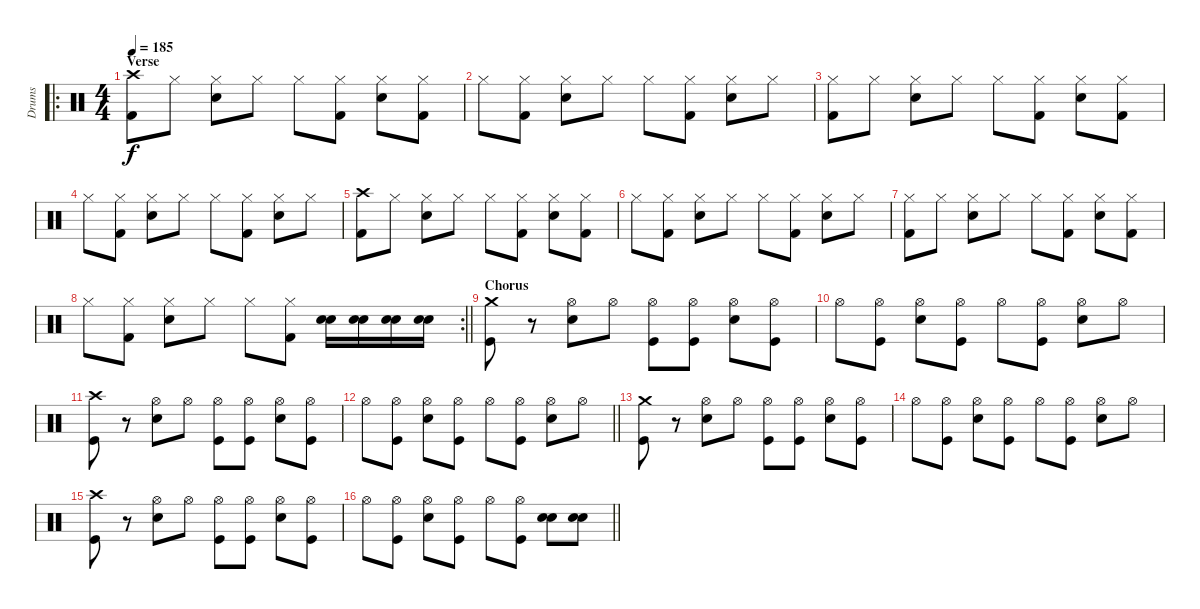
\track ("Drums" "Drums") {instrument percussion}
\staff {score}
\articulation defaults
\ro
\ts (4 4)
\section ("" "Verse")
\tempo 185
\clef neutral
\ks c
("Crash high (hit)" "Kick (hit) 2").8{dy f} "Hi-Hat (closed)".8 ("Hi-Hat (closed)" "Electric Snare (hit)").8 "Hi-Hat (closed)".8 "Hi-Hat (closed)".8 ("Kick (hit) 2" "Hi-Hat (closed)").8 ("Hi-Hat (closed)" "Electric Snare (hit)").8 ("Kick (hit) 2" "Hi-Hat (closed)").8 |
"Hi-Hat (closed)".8 ("Kick (hit) 2" "Hi-Hat (closed)").8 ("Hi-Hat (closed)" "Electric Snare (hit)").8 "Hi-Hat (closed)".8 "Hi-Hat (closed)".8 ("Kick (hit) 2" "Hi-Hat (closed)").8 ("Hi-Hat (closed)" "Electric Snare (hit)").8 "Hi-Hat (closed)".8 |
("Hi-Hat (closed)" "Kick (hit) 2").8 "Hi-Hat (closed)".8 ("Hi-Hat (closed)" "Electric Snare (hit)").8 "Hi-Hat (closed)".8 "Hi-Hat (closed)".8 ("Kick (hit) 2" "Hi-Hat (closed)").8 ("Hi-Hat (closed)" "Electric Snare (hit)").8 ("Kick (hit) 2" "Hi-Hat (closed)").8 |
"Hi-Hat (closed)".8 ("Kick (hit) 2" "Hi-Hat (closed)").8 ("Hi-Hat (closed)" "Electric Snare (hit)").8 "Hi-Hat (closed)".8 "Hi-Hat (closed)".8 ("Kick (hit) 2" "Hi-Hat (closed)").8 ("Hi-Hat (closed)" "Electric Snare (hit)").8 "Hi-Hat (closed)".8 |
("Crash high (hit)" "Kick (hit) 2").8 "Hi-Hat (closed)".8 ("Hi-Hat (closed)" "Electric Snare (hit)").8 "Hi-Hat (closed)".8 "Hi-Hat (closed)".8 ("Kick (hit) 2" "Hi-Hat (closed)").8 ("Hi-Hat (closed)" "Electric Snare (hit)").8 ("Kick (hit) 2" "Hi-Hat (closed)").8 |
"Hi-Hat (closed)".8 ("Kick (hit) 2" "Hi-Hat (closed)").8 ("Hi-Hat (closed)" "Electric Snare (hit)").8 "Hi-Hat (closed)".8 "Hi-Hat (closed)".8 ("Kick (hit) 2" "Hi-Hat (closed)").8 ("Hi-Hat (closed)" "Electric Snare (hit)").8 "Hi-Hat (closed)".8 |
("Hi-Hat (closed)" "Kick (hit) 2").8 "Hi-Hat (closed)".8 ("Hi-Hat (closed)" "Electric Snare (hit)").8 "Hi-Hat (closed)".8 "Hi-Hat (closed)".8 ("Kick (hit) 2" "Hi-Hat (closed)").8 ("Hi-Hat (closed)" "Electric Snare (hit)").8 ("Kick (hit) 2" "Hi-Hat (closed)").8 |
\rc 2
\barLineRight lightlight "Hi-Hat (closed)".8
("Kick (hit) 2" "Hi-Hat (closed)").8 ("Hi-Hat (closed)" "Electric Snare (hit)").8 "Hi-Hat (closed)".8 "Hi-Hat (closed)".8 ("Kick (hit) 2" "Hi-Hat (closed)").8 ("Snare (hit) 2" "Electric Snare (hit)").16 ("Snare (hit) 2" "Electric Snare (hit)").16 ("Snare (hit) 2" "Electric Snare (hit)").16 ("Snare (hit) 2" "Electric Snare (hit)").16 |
\section ("" "Chorus")
("Crash medium (hit)" "Kick (hit)").8 r.8 ("Hi-Hat (open)" "Electric Snare (hit)").8 "Hi-Hat (open)".8 ("Hi-Hat (open)" "Kick (hit)").8 ("Hi-Hat (open)" "Kick (hit)").8 ("Hi-Hat (open)" "Electric Snare (hit)").8 ("Hi-Hat (open)" "Kick (hit)").8 |
"Hi-Hat (open)".8 ("Hi-Hat (open)" "Kick (hit)").8 ("Hi-Hat (open)" "Electric Snare (hit)").8 ("Hi-Hat (open)" "Kick (hit)").8 "Hi-Hat (open)".8 ("Hi-Hat (open)" "Kick (hit)").8 ("Hi-Hat (open)" "Electric Snare (hit)").8 "Hi-Hat (open)".8 |
("Crash high (hit)" "Kick (hit)").8 r.8 ("Hi-Hat (open)" "Electric Snare (hit)").8 "Hi-Hat (open)".8 ("Hi-Hat (open)" "Kick (hit)").8 ("Hi-Hat (open)" "Kick (hit)").8 ("Hi-Hat (open)" "Electric Snare (hit)").8 ("Hi-Hat (open)" "Kick (hit)").8 |
\barLineRight lightlight "Hi-Hat (open)".8
("Hi-Hat (open)" "Kick (hit)").8 ("Hi-Hat (open)" "Electric Snare (hit)").8 ("Hi-Hat (open)" "Kick (hit)").8 "Hi-Hat (open)".8 ("Hi-Hat (open)" "Kick (hit)").8 ("Hi-Hat (open)" "Electric Snare (hit)").8 "Hi-Hat (open)".8 |
("Crash medium (hit)" "Kick (hit)").8 r.8 ("Hi-Hat (open)" "Electric Snare (hit)").8 "Hi-Hat (open)".8 ("Hi-Hat (open)" "Kick (hit)").8 ("Hi-Hat (open)" "Kick (hit)").8 ("Hi-Hat (open)" "Electric Snare (hit)").8 ("Hi-Hat (open)" "Kick (hit)").8 |
"Hi-Hat (open)".8 ("Hi-Hat (open)" "Kick (hit)").8 ("Hi-Hat (open)" "Electric Snare (hit)").8 ("Hi-Hat (open)" "Kick (hit)").8 "Hi-Hat (open)".8 ("Hi-Hat (open)" "Kick (hit)").8 ("Hi-Hat (open)" "Electric Snare (hit)").8 "Hi-Hat (open)".8 |
("Crash high (hit)" "Kick (hit)").8 r.8 ("Hi-Hat (open)" "Electric Snare (hit)").8 "Hi-Hat (open)".8 ("Hi-Hat (open)" "Kick (hit)").8 ("Hi-Hat (open)" "Kick (hit)").8 ("Hi-Hat (open)" "Electric Snare (hit)").8 ("Hi-Hat (open)" "Kick (hit)").8 |
\barLineRight lightlight "Hi-Hat (open)".8
("Hi-Hat (open)" "Kick (hit)").8 ("Hi-Hat (open)" "Electric Snare (hit)").8 ("Hi-Hat (open)" "Kick (hit)").8 "Hi-Hat (open)".8 ("Hi-Hat (open)" "Kick (hit)").8 ("Electric Snare (hit)" "Snare (hit) 2").8 ("Electric Snare (hit)" "Snare (hit) 2").8
